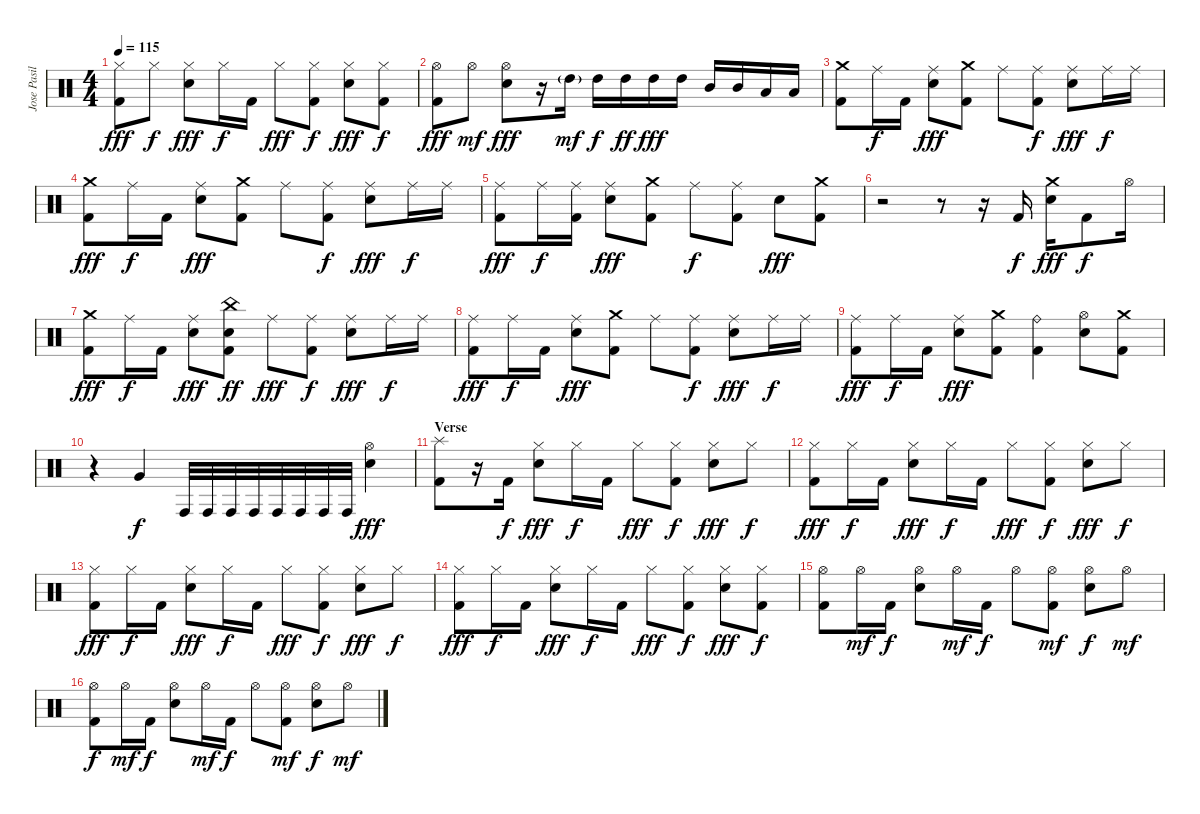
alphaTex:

\track ("Jose Pasillas - Drums" "Jose Pasil") {instrument percussion}
\staff {score}
\articulation defaults
\ts (4 4)
\tempo 115
\clef neutral
\ks c
("Hi-Hat (closed)" "Kick (hit) 2").8{dy fff} "Hi-Hat (closed)".8{dy f} ("Hi-Hat (closed)" "Electric Snare (hit)").8{dy fff} "Hi-Hat (closed)".16{dy f} "Kick (hit) 2".16 "Hi-Hat (closed)".8{dy fff} ("Hi-Hat (closed)" "Kick (hit) 2").8{dy f} ("Hi-Hat (closed)" "Electric Snare (hit)").8{dy fff} ("Hi-Hat (closed)" "Kick (hit) 2").8{dy f} |
("Hi-Hat (open)" "Kick (hit) 2").8{dy fff} "Hi-Hat (open)".8{dy mf} ("Hi-Hat (open)" "Electric Snare (hit)").8{dy fff} r.16 "High Tom (hit)"{g}.16{dy mf} "High Tom (hit)".16{dy f} "High Tom (hit)".16{dy ff} "High Tom (hit)".16{dy fff} "High Tom (hit)".16 "Mid Tom (hit)".16 "Mid Tom (hit)".16 "Low Tom (hit)".16 "Low Tom (hit)".16 |
("Crash medium (hit)" "Kick (hit) 2").8 "Ride (middle)".16{dy f} "Kick (hit) 2".16 ("Ride (middle)" "Electric Snare (hit)").8{dy fff} ("Crash medium (hit)" "Kick (hit) 2").8 "Ride (middle)".8 ("Ride (middle)" "Kick (hit) 2").8{dy f} ("Ride (middle)" "Electric Snare (hit)").8{dy fff} "Ride (middle)".16{dy f} "Ride (middle)".16 |
("Crash medium (hit)" "Kick (hit) 2").8{dy fff} "Ride (middle)".16{dy f} "Kick (hit) 2".16 ("Ride (middle)" "Electric Snare (hit)").8{dy fff} ("Crash medium (hit)" "Kick (hit) 2").8 "Ride (middle)".8 ("Ride (middle)" "Kick (hit) 2").8{dy f} ("Ride (middle)" "Electric Snare (hit)").8{dy fff} "Ride (middle)".16{dy f} "Ride (middle)".16 |
("Ride (middle)" "Kick (hit) 2").8{dy fff} "Ride (middle)".16{dy f} ("Ride (middle)" "Kick (hit) 2").16 ("Ride (middle)" "Electric Snare (hit)").8{dy fff} ("Crash medium (hit)" "Kick (hit) 2").8 "Ride (middle)".8{dy f} ("Ride (middle)" "Kick (hit) 2").8 "Electric Snare (hit)".8{dy fff} ("Crash medium (hit)" "Kick (hit) 2").8 |
r.2 r.8 r.16 "Kick (hit) 2".16{dy f} ("Crash medium (hit)" "Electric Snare (hit)").16{dy fff} "Kick (hit) 2".8{dy f} "Hi-Hat (open)".16 |
("Crash medium (hit)" "Kick (hit) 2").8{dy fff} "Ride (middle)".16{dy f} "Kick (hit) 2".16 ("Ride (middle)" "Electric Snare (hit)").8{dy fff} ("China (hit)" "Electric Snare (hit)" "Kick (hit) 2").8{dy ff} "Ride (middle)".8{dy fff} ("Ride (middle)" "Kick (hit) 2").8{dy f} ("Ride (middle)" "Electric Snare (hit)").8{dy fff} "Ride (middle)".16{dy f} "Ride (middle)".16 |
("Ride (middle)" "Kick (hit) 2").8{dy fff} "Ride (middle)".16{dy f} "Kick (hit) 2".16 ("Ride (middle)" "Electric Snare (hit)").8{dy fff} ("Crash medium (hit)" "Kick (hit) 2").8 "Ride (middle)".8 ("Ride (middle)" "Kick (hit) 2").8{dy f} ("Ride (middle)" "Electric Snare (hit)").8{dy fff} "Ride (middle)".16{dy f} "Ride (middle)".16 |
("Ride (middle)" "Kick (hit) 2").8{dy fff} "Ride (middle)".16{dy f} "Kick (hit) 2".16 ("Ride (middle)" "Electric Snare (hit)").8{dy fff} ("Crash medium (hit)" "Kick (hit) 2").8 ("Ride (bell)" "Kick (hit) 2").4 ("Hi-Hat (open)" "Electric Snare (hit)").8 ("Crash medium (hit)" "Kick (hit) 2").8 |
r.4 "Very Low Tom (hit)".4{dy f} "Conga high (hit)".32 "Conga high (hit)".32 "Conga high (hit)".32 "Conga high (hit)".32 "Conga high (hit)".32 "Conga high (hit)".32 "Conga high (hit)".32 "Conga high (hit)".32 ("Hi-Hat (open)" "Electric Snare (hit)").4{dy fff} |
\section ("" "Verse")
("Splash (hit)" "Kick (hit) 2").8 r.16 "Kick (hit) 2".16{dy f} ("Hi-Hat (closed)" "Electric Snare (hit)").8{dy fff} "Hi-Hat (closed)".16{dy f} "Kick (hit) 2".16 "Hi-Hat (closed)".8{dy fff} ("Hi-Hat (closed)" "Kick (hit) 2").8{dy f} ("Hi-Hat (closed)" "Electric Snare (hit)").8{dy fff} "Hi-Hat (closed)".8{dy f} |
("Hi-Hat (closed)" "Kick (hit) 2").8{dy fff} "Hi-Hat (closed)".16{dy f} "Kick (hit) 2".16 ("Hi-Hat (closed)" "Electric Snare (hit)").8{dy fff} "Hi-Hat (closed)".16{dy f} "Kick (hit) 2".16 "Hi-Hat (closed)".8{dy fff} ("Hi-Hat (closed)" "Kick (hit) 2").8{dy f} ("Hi-Hat (closed)" "Electric Snare (hit)").8{dy fff} "Hi-Hat (closed)".8{dy f} |
("Hi-Hat (closed)" "Kick (hit) 2").8{dy fff} "Hi-Hat (closed)".16{dy f} "Kick (hit) 2".16 ("Hi-Hat (closed)" "Electric Snare (hit)").8{dy fff} "Hi-Hat (closed)".16{dy f} "Kick (hit) 2".16 "Hi-Hat (closed)".8{dy fff} ("Hi-Hat (closed)" "Kick (hit) 2").8{dy f} ("Hi-Hat (closed)" "Electric Snare (hit)").8{dy fff} "Hi-Hat (closed)".8{dy f} |
("Hi-Hat (closed)" "Kick (hit) 2").8{dy fff} "Hi-Hat (closed)".16{dy f} "Kick (hit) 2".16 ("Hi-Hat (closed)" "Electric Snare (hit)").8{dy fff} "Hi-Hat (closed)".16{dy f} "Kick (hit) 2".16 "Hi-Hat (closed)".8{dy fff} ("Hi-Hat (closed)" "Kick (hit) 2").8{dy f} ("Hi-Hat (closed)" "Electric Snare (hit)").8{dy fff} ("Hi-Hat (closed)" "Kick (hit) 2").8{dy f} |
("Hi-Hat (open)" "Kick (hit) 2").8 "Hi-Hat (open)".16{dy mf} "Kick (hit) 2".16{dy f} ("Hi-Hat (open)" "Electric Snare (hit)").8 "Hi-Hat (open)".16{dy mf} "Kick (hit) 2".16{dy f} "Hi-Hat (open)".8 ("Hi-Hat (open)" "Kick (hit) 2").8{dy mf} ("Hi-Hat (open)" "Electric Snare (hit)").8{dy f} "Hi-Hat (open)".8{dy mf} |
("Hi-Hat (open)" "Kick (hit) 2").8{dy f} "Hi-Hat (open)".16{dy mf} "Kick (hit) 2".16{dy f} ("Hi-Hat (open)" "Electric Snare (hit)").8 "Hi-Hat (open)".16{dy mf} "Kick (hit) 2".16{dy f} "Hi-Hat (open)".8 ("Hi-Hat (open)" "Kick (hit) 2").8{dy mf} ("Hi-Hat (open)" "Electric Snare (hit)").8{dy f} "Hi-Hat (open)".8{dy mf}
